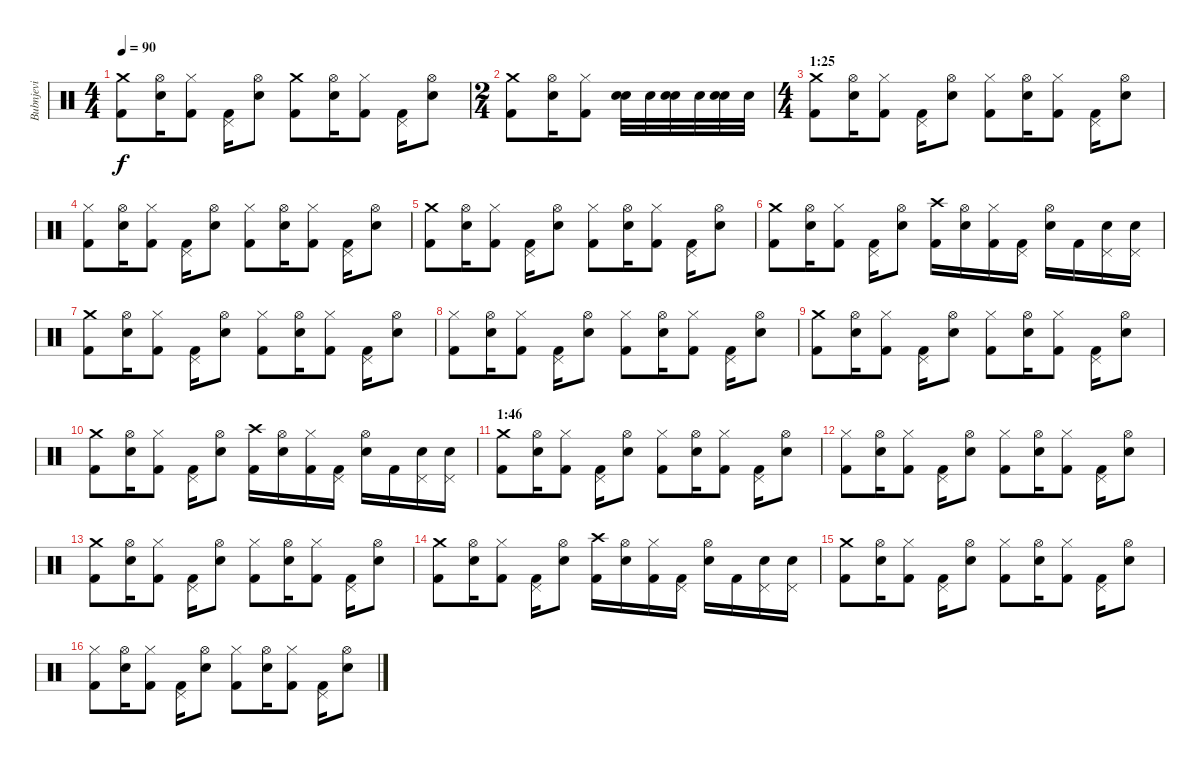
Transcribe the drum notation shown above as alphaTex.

\track ("Bubnjevi" "Bubnjevi") {instrument percussion}
\staff {score}
\articulation defaults
\ts (4 4)
\tempo 90
\clef neutral
\ks c
("Crash medium (hit)" "Kick (hit) 2").8{dy f} ("Hi-Hat (open)" "Snare (hit) 2").16 ("Hi-Hat (closed)" "Kick (hit) 2").8 ("Pedal Hi-Hat (hit)" "Kick (hit) 2").16 ("Hi-Hat (open)" "Snare (hit) 2").8 ("Crash medium (hit)" "Kick (hit) 2").8 ("Hi-Hat (open)" "Snare (hit) 2").16 ("Hi-Hat (closed)" "Kick (hit) 2").8 ("Pedal Hi-Hat (hit)" "Kick (hit) 2").16 ("Hi-Hat (open)" "Snare (hit) 2").8 |
\ts (2 4)
("Crash medium (hit)" "Kick (hit) 2").8 ("Hi-Hat (open)" "Snare (hit) 2").16 ("Hi-Hat (closed)" "Kick (hit) 2").8 ("Snare (hit) 2" "Snare (hit) 2").32 "Snare (hit) 2".32 ("Snare (hit) 2" "Snare (hit) 2").32 "Snare (hit) 2".32 ("Snare (hit) 2" "Snare (hit) 2").32 "Snare (hit) 2".32 |
\ts (4 4)
\section ("" "1:25")
("Crash medium (hit)" "Kick (hit) 2").8 ("Hi-Hat (open)" "Snare (hit) 2").16 ("Hi-Hat (closed)" "Kick (hit) 2").8 ("Pedal Hi-Hat (hit)" "Kick (hit) 2").16 ("Hi-Hat (open)" "Snare (hit) 2").8 ("Hi-Hat (closed)" "Kick (hit) 2").8 ("Hi-Hat (open)" "Snare (hit) 2").16 ("Hi-Hat (closed)" "Kick (hit) 2").8 ("Pedal Hi-Hat (hit)" "Kick (hit) 2").16 ("Hi-Hat (open)" "Snare (hit) 2").8 |
("Hi-Hat (closed)" "Kick (hit) 2").8 ("Hi-Hat (open)" "Snare (hit) 2").16 ("Hi-Hat (closed)" "Kick (hit) 2").8 ("Pedal Hi-Hat (hit)" "Kick (hit) 2").16 ("Hi-Hat (open)" "Snare (hit) 2").8 ("Hi-Hat (closed)" "Kick (hit) 2").8 ("Hi-Hat (open)" "Snare (hit) 2").16 ("Hi-Hat (closed)" "Kick (hit) 2").8 ("Pedal Hi-Hat (hit)" "Kick (hit) 2").16 ("Hi-Hat (open)" "Snare (hit) 2").8 |
("Crash medium (hit)" "Kick (hit) 2").8 ("Hi-Hat (open)" "Snare (hit) 2").16 ("Hi-Hat (closed)" "Kick (hit) 2").8 ("Pedal Hi-Hat (hit)" "Kick (hit) 2").16 ("Hi-Hat (open)" "Snare (hit) 2").8 ("Hi-Hat (closed)" "Kick (hit) 2").8 ("Hi-Hat (open)" "Snare (hit) 2").16 ("Hi-Hat (closed)" "Kick (hit) 2").8 ("Pedal Hi-Hat (hit)" "Kick (hit) 2").16 ("Hi-Hat (open)" "Snare (hit) 2").8 |
("Crash medium (hit)" "Kick (hit) 2").8 ("Hi-Hat (open)" "Snare (hit) 2").16 ("Hi-Hat (closed)" "Kick (hit) 2").8 ("Pedal Hi-Hat (hit)" "Kick (hit) 2").16 ("Hi-Hat (open)" "Snare (hit) 2").8 ("Crash high (hit)" "Kick (hit) 2").16 ("Hi-Hat (open)" "Snare (hit) 2").16 ("Hi-Hat (closed)" "Kick (hit) 2").16 ("Pedal Hi-Hat (hit)" "Kick (hit) 2").16 ("Hi-Hat (open)" "Snare (hit) 2").16 "Kick (hit) 2".16 ("Pedal Hi-Hat (hit)" "Snare (hit) 2").16 ("Pedal Hi-Hat (hit)" "Snare (hit) 2").16 |
("Crash medium (hit)" "Kick (hit) 2").8 ("Hi-Hat (open)" "Snare (hit) 2").16 ("Hi-Hat (closed)" "Kick (hit) 2").8 ("Pedal Hi-Hat (hit)" "Kick (hit) 2").16 ("Hi-Hat (open)" "Snare (hit) 2").8 ("Hi-Hat (closed)" "Kick (hit) 2").8 ("Hi-Hat (open)" "Snare (hit) 2").16 ("Hi-Hat (closed)" "Kick (hit) 2").8 ("Pedal Hi-Hat (hit)" "Kick (hit) 2").16 ("Hi-Hat (open)" "Snare (hit) 2").8 |
("Hi-Hat (closed)" "Kick (hit) 2").8 ("Hi-Hat (open)" "Snare (hit) 2").16 ("Hi-Hat (closed)" "Kick (hit) 2").8 ("Pedal Hi-Hat (hit)" "Kick (hit) 2").16 ("Hi-Hat (open)" "Snare (hit) 2").8 ("Hi-Hat (closed)" "Kick (hit) 2").8 ("Hi-Hat (open)" "Snare (hit) 2").16 ("Hi-Hat (closed)" "Kick (hit) 2").8 ("Pedal Hi-Hat (hit)" "Kick (hit) 2").16 ("Hi-Hat (open)" "Snare (hit) 2").8 |
("Crash medium (hit)" "Kick (hit) 2").8 ("Hi-Hat (open)" "Snare (hit) 2").16 ("Hi-Hat (closed)" "Kick (hit) 2").8 ("Pedal Hi-Hat (hit)" "Kick (hit) 2").16 ("Hi-Hat (open)" "Snare (hit) 2").8 ("Hi-Hat (closed)" "Kick (hit) 2").8 ("Hi-Hat (open)" "Snare (hit) 2").16 ("Hi-Hat (closed)" "Kick (hit) 2").8 ("Pedal Hi-Hat (hit)" "Kick (hit) 2").16 ("Hi-Hat (open)" "Snare (hit) 2").8 |
("Crash medium (hit)" "Kick (hit) 2").8 ("Hi-Hat (open)" "Snare (hit) 2").16 ("Hi-Hat (closed)" "Kick (hit) 2").8 ("Pedal Hi-Hat (hit)" "Kick (hit) 2").16 ("Hi-Hat (open)" "Snare (hit) 2").8 ("Crash high (hit)" "Kick (hit) 2").16 ("Hi-Hat (open)" "Snare (hit) 2").16 ("Hi-Hat (closed)" "Kick (hit) 2").16 ("Pedal Hi-Hat (hit)" "Kick (hit) 2").16 ("Hi-Hat (open)" "Snare (hit) 2").16 "Kick (hit) 2".16 ("Pedal Hi-Hat (hit)" "Snare (hit) 2").16 ("Pedal Hi-Hat (hit)" "Snare (hit) 2").16 |
\section ("" "1:46")
("Crash medium (hit)" "Kick (hit) 2").8 ("Hi-Hat (open)" "Snare (hit) 2").16 ("Hi-Hat (closed)" "Kick (hit) 2").8 ("Pedal Hi-Hat (hit)" "Kick (hit) 2").16 ("Hi-Hat (open)" "Snare (hit) 2").8 ("Hi-Hat (closed)" "Kick (hit) 2").8 ("Hi-Hat (open)" "Snare (hit) 2").16 ("Hi-Hat (closed)" "Kick (hit) 2").8 ("Pedal Hi-Hat (hit)" "Kick (hit) 2").16 ("Hi-Hat (open)" "Snare (hit) 2").8 |
("Hi-Hat (closed)" "Kick (hit) 2").8 ("Hi-Hat (open)" "Snare (hit) 2").16 ("Hi-Hat (closed)" "Kick (hit) 2").8 ("Pedal Hi-Hat (hit)" "Kick (hit) 2").16 ("Hi-Hat (open)" "Snare (hit) 2").8 ("Hi-Hat (closed)" "Kick (hit) 2").8 ("Hi-Hat (open)" "Snare (hit) 2").16 ("Hi-Hat (closed)" "Kick (hit) 2").8 ("Pedal Hi-Hat (hit)" "Kick (hit) 2").16 ("Hi-Hat (open)" "Snare (hit) 2").8 |
("Crash medium (hit)" "Kick (hit) 2").8 ("Hi-Hat (open)" "Snare (hit) 2").16 ("Hi-Hat (closed)" "Kick (hit) 2").8 ("Pedal Hi-Hat (hit)" "Kick (hit) 2").16 ("Hi-Hat (open)" "Snare (hit) 2").8 ("Hi-Hat (closed)" "Kick (hit) 2").8 ("Hi-Hat (open)" "Snare (hit) 2").16 ("Hi-Hat (closed)" "Kick (hit) 2").8 ("Pedal Hi-Hat (hit)" "Kick (hit) 2").16 ("Hi-Hat (open)" "Snare (hit) 2").8 |
("Crash medium (hit)" "Kick (hit) 2").8 ("Hi-Hat (open)" "Snare (hit) 2").16 ("Hi-Hat (closed)" "Kick (hit) 2").8 ("Pedal Hi-Hat (hit)" "Kick (hit) 2").16 ("Hi-Hat (open)" "Snare (hit) 2").8 ("Crash high (hit)" "Kick (hit) 2").16 ("Hi-Hat (open)" "Snare (hit) 2").16 ("Hi-Hat (closed)" "Kick (hit) 2").16 ("Pedal Hi-Hat (hit)" "Kick (hit) 2").16 ("Hi-Hat (open)" "Snare (hit) 2").16 "Kick (hit) 2".16 ("Pedal Hi-Hat (hit)" "Snare (hit) 2").16 ("Pedal Hi-Hat (hit)" "Snare (hit) 2").16 |
("Crash medium (hit)" "Kick (hit) 2").8 ("Hi-Hat (open)" "Snare (hit) 2").16 ("Hi-Hat (closed)" "Kick (hit) 2").8 ("Pedal Hi-Hat (hit)" "Kick (hit) 2").16 ("Hi-Hat (open)" "Snare (hit) 2").8 ("Hi-Hat (closed)" "Kick (hit) 2").8 ("Hi-Hat (open)" "Snare (hit) 2").16 ("Hi-Hat (closed)" "Kick (hit) 2").8 ("Pedal Hi-Hat (hit)" "Kick (hit) 2").16 ("Hi-Hat (open)" "Snare (hit) 2").8 |
("Hi-Hat (closed)" "Kick (hit) 2").8 ("Hi-Hat (open)" "Snare (hit) 2").16 ("Hi-Hat (closed)" "Kick (hit) 2").8 ("Pedal Hi-Hat (hit)" "Kick (hit) 2").16 ("Hi-Hat (open)" "Snare (hit) 2").8 ("Hi-Hat (closed)" "Kick (hit) 2").8 ("Hi-Hat (open)" "Snare (hit) 2").16 ("Hi-Hat (closed)" "Kick (hit) 2").8 ("Pedal Hi-Hat (hit)" "Kick (hit) 2").16 ("Hi-Hat (open)" "Snare (hit) 2").8
